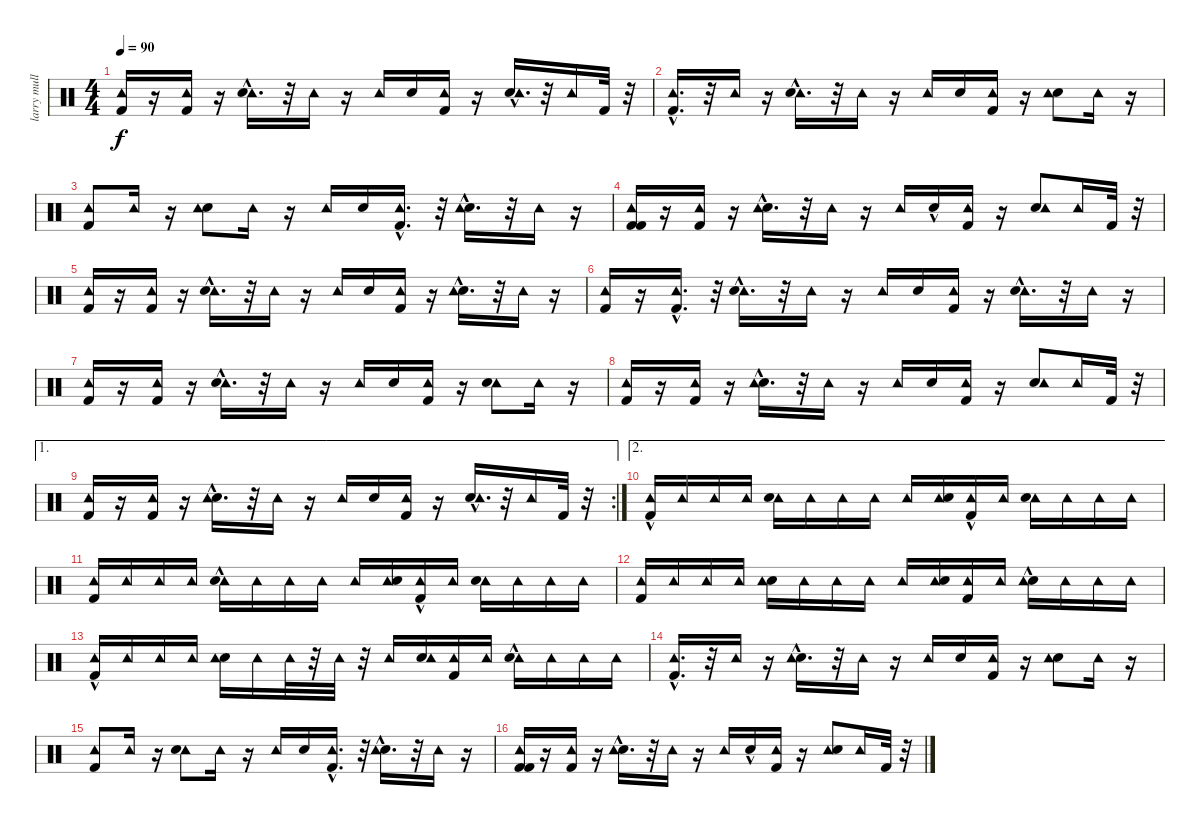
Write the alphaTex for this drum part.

\track ("larry mullen jr" "larry mull") {instrument percussion}
\staff {score}
\articulation defaults
\ts (4 4)
\tempo 90
\clef neutral
\ks c
("Kick (hit) 2" "Tambourine (hit)").16{dy f} r.16 ("Tambourine (hit)" "Kick (hit) 2").16 r.16 ("Tambourine (hit)" "Electric Snare (hit)"{hac}).16{d} r.32 "Tambourine (hit)".16 r.16 "Tambourine (hit)".16 "Electric Snare (hit)".16 ("Kick (hit) 2" "Tambourine (hit)").16 r.16 ("Electric Snare (hit)"{hac} "Tambourine (hit)").16{d} r.32 "Tambourine (hit)".16 "Kick (hit) 2".32 r.32 |
("Tambourine (hit)" "Kick (hit) 2"{hac}).16{d} r.32 "Tambourine (hit)".16 r.16 ("Tambourine (hit)" "Electric Snare (hit)"{hac}).16{d} r.32 "Tambourine (hit)".16 r.16 "Tambourine (hit)".16 "Electric Snare (hit)".16 ("Kick (hit) 2" "Tambourine (hit)").16 r.16 ("Electric Snare (hit)" "Tambourine (hit)").8 "Tambourine (hit)".16 r.16 |
("Kick (hit) 2" "Tambourine (hit)").8 "Tambourine (hit)".16 r.16 ("Electric Snare (hit)" "Tambourine (hit)").8 "Tambourine (hit)".16 r.16 "Tambourine (hit)".16 "Electric Snare (hit)".16 ("Kick (hit) 2"{hac} "Tambourine (hit)").16{d} r.32 ("Electric Snare (hit)"{hac} "Tambourine (hit)").16{d} r.32 "Tambourine (hit)".16 r.16 |
("Kick (hit) 2" "Tambourine (hit)" "Kick (hit) 2").16 r.16 ("Tambourine (hit)" "Kick (hit) 2").16 r.16 ("Electric Snare (hit)"{hac} "Tambourine (hit)").16{d} r.32 "Tambourine (hit)".16 r.16 "Tambourine (hit)".16 "Electric Snare (hit)"{hac}.16 ("Kick (hit) 2" "Tambourine (hit)").16 r.16 ("Electric Snare (hit)" "Tambourine (hit)").8 "Tambourine (hit)".16 "Kick (hit) 2".32 r.32 |
("Tambourine (hit)" "Kick (hit) 2").16 r.16 ("Tambourine (hit)" "Kick (hit) 2").16 r.16 ("Tambourine (hit)" "Electric Snare (hit)"{hac}).16{d} r.32 "Tambourine (hit)".16 r.16 "Tambourine (hit)".16 "Electric Snare (hit)".16 ("Kick (hit) 2" "Tambourine (hit)").16 r.16 ("Electric Snare (hit)"{hac} "Tambourine (hit)").16{d} r.32 "Tambourine (hit)".16 r.16 |
("Tambourine (hit)" "Kick (hit) 2").16 r.16 ("Tambourine (hit)"{hac} "Kick (hit) 2").16{d} r.32 ("Tambourine (hit)" "Electric Snare (hit)"{hac}).16{d} r.32 "Tambourine (hit)".16 r.16 "Tambourine (hit)".16 "Electric Snare (hit)".16 ("Tambourine (hit)" "Kick (hit) 2").16 r.16 ("Tambourine (hit)" "Electric Snare (hit)"{hac}).16{d} r.32 "Tambourine (hit)".16 r.16 |
("Kick (hit) 2" "Tambourine (hit)").16 r.16 ("Tambourine (hit)" "Kick (hit) 2").16 r.16 ("Tambourine (hit)" "Electric Snare (hit)"{hac}).16{d} r.32 "Tambourine (hit)".16 r.16 "Tambourine (hit)".16 "Electric Snare (hit)".16 ("Kick (hit) 2" "Tambourine (hit)").16 r.16 ("Tambourine (hit)" "Electric Snare (hit)").8 "Tambourine (hit)".16 r.16 |
("Tambourine (hit)" "Kick (hit) 2").16 r.16 ("Kick (hit) 2" "Tambourine (hit)").16 r.16 ("Electric Snare (hit)"{hac} "Tambourine (hit)").16{d} r.32 "Tambourine (hit)".16 r.16 "Tambourine (hit)".16 "Electric Snare (hit)".16 ("Kick (hit) 2" "Tambourine (hit)").16 r.16 ("Electric Snare (hit)" "Tambourine (hit)").8 "Tambourine (hit)".16 "Kick (hit) 2".32 r.32 |
\ae 1
\rc 2
("Tambourine (hit)" "Kick (hit) 2").16 r.16 ("Kick (hit) 2" "Tambourine (hit)").16 r.16 ("Electric Snare (hit)"{hac} "Tambourine (hit)").16{d} r.32 "Tambourine (hit)".16 r.16 "Tambourine (hit)".16 "Electric Snare (hit)".16 ("Kick (hit) 2" "Tambourine (hit)").16 r.16 ("Electric Snare (hit)"{hac} "Tambourine (hit)").16{d} r.32 "Tambourine (hit)".16 "Kick (hit) 2".32 r.32 |
\ae 2
("Tambourine (hit)" "Kick (hit) 2"{hac}).16 "Tambourine (hit)".16 "Tambourine (hit)".16 "Tambourine (hit)".16 ("Tambourine (hit)" "Electric Snare (hit)").16 "Tambourine (hit)".16 "Tambourine (hit)".16 "Tambourine (hit)".16 "Tambourine (hit)".16 ("Tambourine (hit)" "Electric Snare (hit)").16 ("Kick (hit) 2"{hac} "Tambourine (hit)").16 "Tambourine (hit)".16 ("Tambourine (hit)" "Electric Snare (hit)").16 "Tambourine (hit)".16 "Tambourine (hit)".16 "Tambourine (hit)".16 |
("Kick (hit) 2" "Tambourine (hit)").16 "Tambourine (hit)".16 "Tambourine (hit)".16 "Tambourine (hit)".16 ("Tambourine (hit)" "Electric Snare (hit)"{hac}).16 "Tambourine (hit)".16 "Tambourine (hit)".16 "Tambourine (hit)".16 "Tambourine (hit)".16 ("Tambourine (hit)" "Electric Snare (hit)").16 ("Kick (hit) 2"{hac} "Tambourine (hit)").16 "Tambourine (hit)".16 ("Tambourine (hit)" "Electric Snare (hit)").16 "Tambourine (hit)".16 "Tambourine (hit)".16 "Tambourine (hit)".16 |
("Kick (hit) 2" "Tambourine (hit)").16 "Tambourine (hit)".16 "Tambourine (hit)".16 "Tambourine (hit)".16 ("Electric Snare (hit)" "Tambourine (hit)").16 "Tambourine (hit)".16 "Tambourine (hit)".16 "Tambourine (hit)".16 "Tambourine (hit)".16 ("Tambourine (hit)" "Electric Snare (hit)").16 ("Tambourine (hit)" "Kick (hit) 2").16 "Tambourine (hit)".16 ("Electric Snare (hit)"{hac} "Tambourine (hit)").16 "Tambourine (hit)".16 "Tambourine (hit)".16 "Tambourine (hit)".16 |
("Kick (hit) 2"{hac} "Tambourine (hit)").16 "Tambourine (hit)".16 "Tambourine (hit)".16 "Tambourine (hit)".16 ("Electric Snare (hit)" "Tambourine (hit)").16 "Tambourine (hit)".16 "Tambourine (hit)".32 r.32 "Tambourine (hit)".32 r.32 "Tambourine (hit)".16 ("Electric Snare (hit)" "Tambourine (hit)").16 ("Kick (hit) 2" "Tambourine (hit)").16 "Tambourine (hit)".16 ("Tambourine (hit)" "Electric Snare (hit)"{hac}).16 "Tambourine (hit)".16 "Tambourine (hit)".16 "Tambourine (hit)".16 |
("Tambourine (hit)" "Kick (hit) 2"{hac}).16{d} r.32 "Tambourine (hit)".16 r.16 ("Electric Snare (hit)"{hac} "Tambourine (hit)").16{d} r.32 "Tambourine (hit)".16 r.16 "Tambourine (hit)".16 "Electric Snare (hit)".16 ("Kick (hit) 2" "Tambourine (hit)").16 r.16 ("Electric Snare (hit)" "Tambourine (hit)").8 "Tambourine (hit)".16 r.16 |
("Tambourine (hit)" "Kick (hit) 2").8 "Tambourine (hit)".16 r.16 ("Tambourine (hit)" "Electric Snare (hit)").8 "Tambourine (hit)".16 r.16 "Tambourine (hit)".16 "Electric Snare (hit)".16 ("Tambourine (hit)" "Kick (hit) 2"{hac}).16{d} r.32 ("Electric Snare (hit)"{hac} "Tambourine (hit)").16{d} r.32 "Tambourine (hit)".16 r.16 |
("Kick (hit) 2" "Kick (hit) 2" "Tambourine (hit)").16 r.16 ("Tambourine (hit)" "Kick (hit) 2").16 r.16 ("Electric Snare (hit)"{hac} "Tambourine (hit)").16{d} r.32 "Tambourine (hit)".16 r.16 "Tambourine (hit)".16 "Electric Snare (hit)"{hac}.16 ("Tambourine (hit)" "Kick (hit) 2").16 r.16 ("Tambourine (hit)" "Electric Snare (hit)").8 "Tambourine (hit)".16 "Kick (hit) 2".32 r.32
